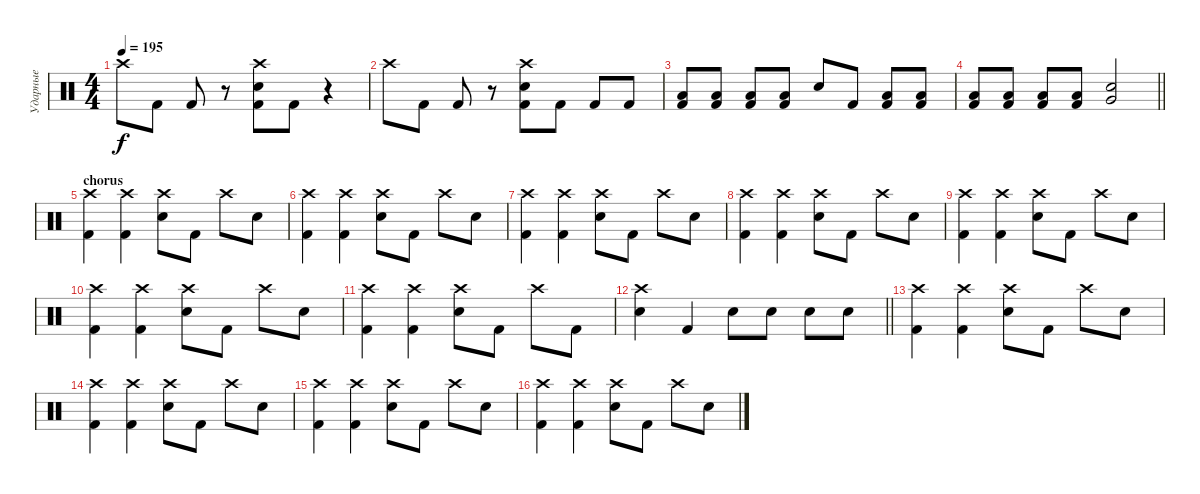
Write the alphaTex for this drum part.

\track ("Ударные" "Ударные") {instrument percussion}
\staff {score}
\articulation defaults
\ts (4 4)
\tempo 195
\clef neutral
\ks c "Crash high (hit)".8{dy f} "Kick (hit) 2".8 "Kick (hit) 2".8
r.8 ("Crash high (hit)" "Electric Snare (hit)" "Kick (hit) 2").8 "Kick (hit) 2".8 r.4 |
"Crash high (hit)".8 "Kick (hit) 2".8 "Kick (hit) 2".8 r.8 ("Crash high (hit)" "Electric Snare (hit)" "Kick (hit) 2").8 "Kick (hit) 2".8 "Kick (hit) 2".8 "Kick (hit) 2".8 |
("Low Tom (hit)" "Kick (hit) 2").8 ("Low Tom (hit)" "Kick (hit) 2").8 ("Low Tom (hit)" "Kick (hit) 2").8 ("Low Tom (hit)" "Kick (hit) 2").8 "Electric Snare (hit)".8 "Kick (hit) 2".8 ("Low Tom (hit)" "Kick (hit) 2").8 ("Low Tom (hit)" "Kick (hit) 2").8 |
\barLineRight lightlight
("Low Tom (hit)" "Kick (hit) 2").8 ("Low Tom (hit)" "Kick (hit) 2").8 ("Low Tom (hit)" "Kick (hit) 2").8 ("Low Tom (hit)" "Kick (hit) 2").8 ("Very Low Tom (hit)" "Snare (hit) 2").2 |
\section ("" "chorus")
("Crash high (hit)" "Kick (hit) 2").4 ("Crash high (hit)" "Kick (hit) 2").4 ("Crash high (hit)" "Electric Snare (hit)").8 "Kick (hit) 2".8 "Crash high (hit)".8 "Electric Snare (hit)".8 |
("Crash high (hit)" "Kick (hit) 2").4 ("Crash high (hit)" "Kick (hit) 2").4 ("Crash high (hit)" "Electric Snare (hit)").8 "Kick (hit) 2".8 "Crash high (hit)".8 "Electric Snare (hit)".8 |
("Crash high (hit)" "Kick (hit) 2").4 ("Crash high (hit)" "Kick (hit) 2").4 ("Crash high (hit)" "Electric Snare (hit)").8 "Kick (hit) 2".8 "Crash high (hit)".8 "Electric Snare (hit)".8 |
("Crash high (hit)" "Kick (hit) 2").4 ("Crash high (hit)" "Kick (hit) 2").4 ("Crash high (hit)" "Electric Snare (hit)").8 "Kick (hit) 2".8 "Crash high (hit)".8 "Electric Snare (hit)".8 |
("Crash high (hit)" "Kick (hit) 2").4 ("Crash high (hit)" "Kick (hit) 2").4 ("Crash high (hit)" "Electric Snare (hit)").8 "Kick (hit) 2".8 "Crash high (hit)".8 "Electric Snare (hit)".8 |
("Crash high (hit)" "Kick (hit) 2").4 ("Crash high (hit)" "Kick (hit) 2").4 ("Crash high (hit)" "Electric Snare (hit)").8 "Kick (hit) 2".8 "Crash high (hit)".8 "Electric Snare (hit)".8 |
("Crash high (hit)" "Kick (hit) 2").4 ("Crash high (hit)" "Kick (hit) 2").4 ("Crash high (hit)" "Electric Snare (hit)").8 "Kick (hit) 2".8 "Crash high (hit)".8 "Kick (hit) 2".8 |
\barLineRight lightlight
("Crash high (hit)" "Electric Snare (hit)").4 "Kick (hit) 2".4 "Electric Snare (hit)".8 "Electric Snare (hit)".8 "Electric Snare (hit)".8 "Electric Snare (hit)".8 |
("Crash high (hit)" "Kick (hit) 2").4 ("Crash high (hit)" "Kick (hit) 2").4 ("Crash high (hit)" "Electric Snare (hit)").8 "Kick (hit) 2".8 "Crash high (hit)".8 "Electric Snare (hit)".8 |
("Crash high (hit)" "Kick (hit) 2").4 ("Crash high (hit)" "Kick (hit) 2").4 ("Crash high (hit)" "Electric Snare (hit)").8 "Kick (hit) 2".8 "Crash high (hit)".8 "Electric Snare (hit)".8 |
("Crash high (hit)" "Kick (hit) 2").4 ("Crash high (hit)" "Kick (hit) 2").4 ("Crash high (hit)" "Electric Snare (hit)").8 "Kick (hit) 2".8 "Crash high (hit)".8 "Electric Snare (hit)".8 |
("Crash high (hit)" "Kick (hit) 2").4 ("Crash high (hit)" "Kick (hit) 2").4 ("Crash high (hit)" "Electric Snare (hit)").8 "Kick (hit) 2".8 "Crash high (hit)".8 "Electric Snare (hit)".8
